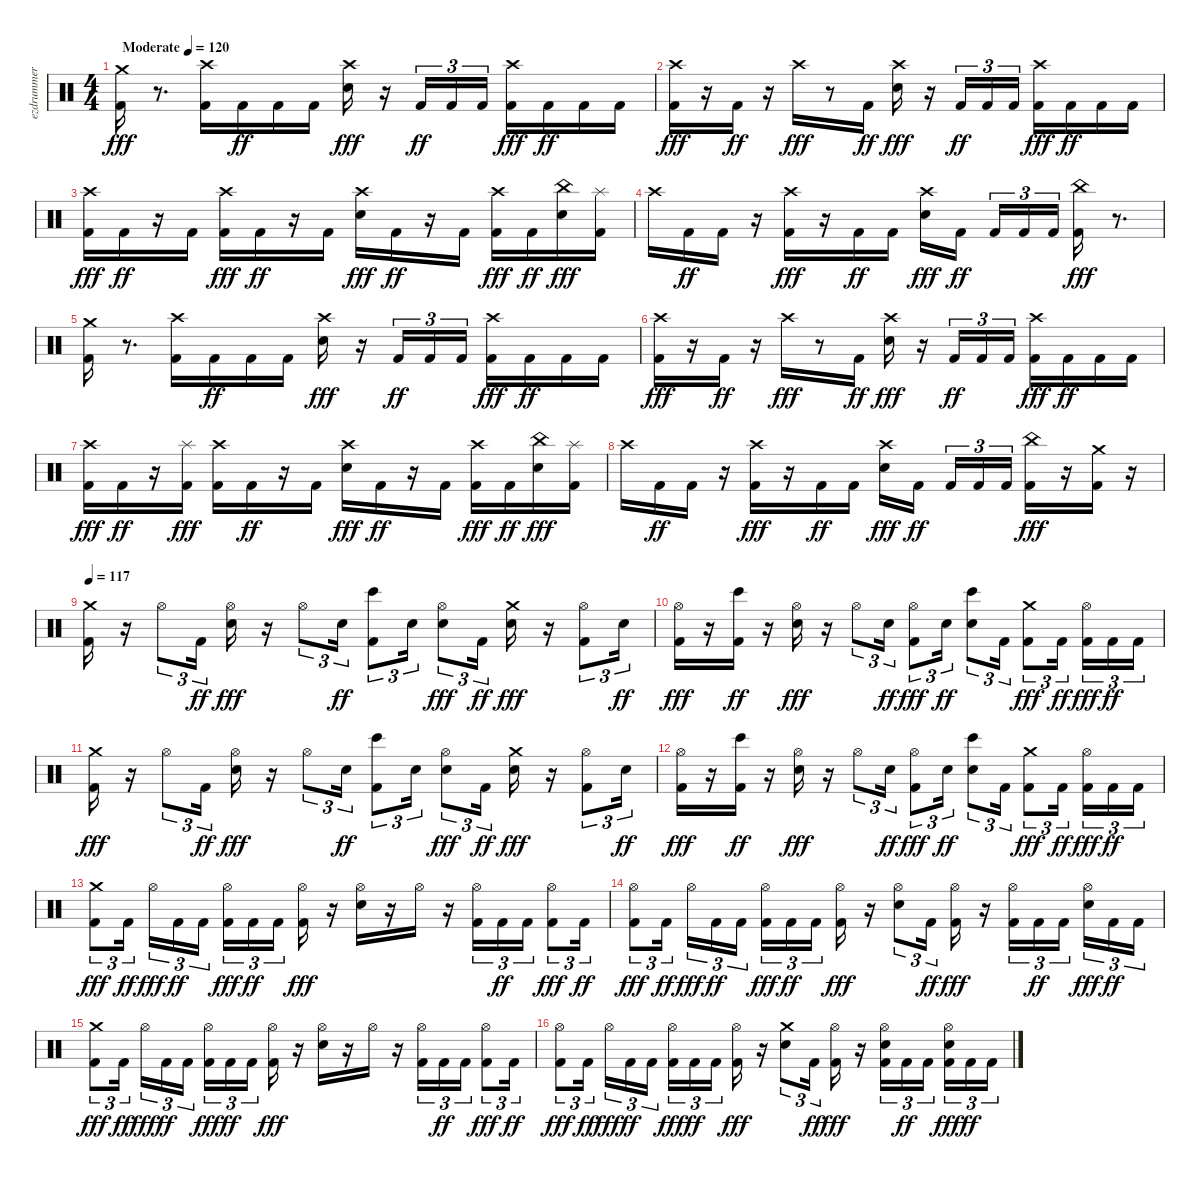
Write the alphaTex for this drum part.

\track ("ezdrummer 02" "ezdrummer ") {instrument percussion}
\staff {score}
\articulation defaults
\ts (4 4)
\tempo (120 "Moderate")
\clef neutral
\ks c
("Kick (hit) 2" "Crash medium (hit)").16{dy fff} r.8{d} ("Kick (hit) 2" "Crash high (hit)").16 "Kick (hit) 2".16{dy ff} "Kick (hit) 2".16 "Kick (hit) 2".16 ("Snare (hit) 2" "Crash high (hit)").16{dy fff} r.16 "Kick (hit) 2".16{tu (3 2) dy ff} "Kick (hit) 2".16{tu (3 2)} "Kick (hit) 2".16{tu (3 2)} ("Kick (hit) 2" "Crash high (hit)").16{dy fff} "Kick (hit) 2".16{dy ff} "Kick (hit) 2".16 "Kick (hit) 2".16 |
("Kick (hit) 2" "Crash high (hit)").16{dy fff} r.16 "Kick (hit) 2".16{dy ff} r.16 "Crash high (hit)".16{dy fff} r.8 "Kick (hit) 2".16{dy ff} ("Snare (hit) 2" "Crash high (hit)").16{dy fff} r.16 "Kick (hit) 2".16{tu (3 2) dy ff} "Kick (hit) 2".16{tu (3 2)} "Kick (hit) 2".16{tu (3 2)} ("Kick (hit) 2" "Crash high (hit)").16{dy fff} "Kick (hit) 2".16{dy ff} "Kick (hit) 2".16 "Kick (hit) 2".16 |
("Kick (hit) 2" "Crash high (hit)").16{dy fff} "Kick (hit) 2".16{dy ff} r.16 "Kick (hit) 2".16 ("Kick (hit) 2" "Crash high (hit)").16{dy fff} "Kick (hit) 2".16{dy ff} r.16 "Kick (hit) 2".16 ("Snare (hit) 2" "Crash high (hit)").16{dy fff} "Kick (hit) 2".16{dy ff} r.16 "Kick (hit) 2".16 ("Kick (hit) 2" "Crash high (hit)").16{dy fff} "Kick (hit) 2".16{dy ff} ("Snare (hit) 2" "China (hit)").16{dy fff} ("Kick (hit) 2" "Splash (hit)").16 |
"Crash high (hit)".16 "Kick (hit) 2".16{dy ff} "Kick (hit) 2".16 r.16 ("Kick (hit) 2" "Crash high (hit)").16{dy fff} r.16 "Kick (hit) 2".16{dy ff} "Kick (hit) 2".16 ("Snare (hit) 2" "Crash high (hit)").16{dy fff} "Kick (hit) 2".16{dy ff beam splitsecondary} "Kick (hit) 2".16{tu (3 2)} "Kick (hit) 2".16{tu (3 2)} "Kick (hit) 2".16{tu (3 2)} ("Kick (hit) 2" "China (hit)").16{dy fff} r.8{d} |
("Kick (hit) 2" "Crash medium (hit)").16 r.8{d} ("Kick (hit) 2" "Crash high (hit)").16 "Kick (hit) 2".16{dy ff} "Kick (hit) 2".16 "Kick (hit) 2".16 ("Snare (hit) 2" "Crash high (hit)").16{dy fff} r.16 "Kick (hit) 2".16{tu (3 2) dy ff} "Kick (hit) 2".16{tu (3 2)} "Kick (hit) 2".16{tu (3 2)} ("Kick (hit) 2" "Crash high (hit)").16{dy fff} "Kick (hit) 2".16{dy ff} "Kick (hit) 2".16 "Kick (hit) 2".16 |
("Kick (hit) 2" "Crash high (hit)").16{dy fff} r.16 "Kick (hit) 2".16{dy ff} r.16 "Crash high (hit)".16{dy fff} r.8 "Kick (hit) 2".16{dy ff} ("Snare (hit) 2" "Crash high (hit)").16{dy fff} r.16 "Kick (hit) 2".16{tu (3 2) dy ff} "Kick (hit) 2".16{tu (3 2)} "Kick (hit) 2".16{tu (3 2)} ("Kick (hit) 2" "Crash high (hit)").16{dy fff} "Kick (hit) 2".16{dy ff} "Kick (hit) 2".16 "Kick (hit) 2".16 |
("Kick (hit) 2" "Crash high (hit)").16{dy fff} "Kick (hit) 2".16{dy ff} r.16 ("Kick (hit) 2" "Splash (hit)").16{dy fff} ("Kick (hit) 2" "Crash high (hit)").16 "Kick (hit) 2".16{dy ff} r.16 "Kick (hit) 2".16 ("Snare (hit) 2" "Crash high (hit)").16{dy fff} "Kick (hit) 2".16{dy ff} r.16 "Kick (hit) 2".16 ("Kick (hit) 2" "Crash high (hit)").16{dy fff} "Kick (hit) 2".16{dy ff} ("Snare (hit) 2" "China (hit)").16{dy fff} ("Kick (hit) 2" "Splash (hit)").16 |
"Crash high (hit)".16 "Kick (hit) 2".16{dy ff} "Kick (hit) 2".16 r.16 ("Kick (hit) 2" "Crash high (hit)").16{dy fff} r.16 "Kick (hit) 2".16{dy ff} "Kick (hit) 2".16 ("Snare (hit) 2" "Crash high (hit)").16{dy fff} "Kick (hit) 2".16{dy ff beam splitsecondary} "Kick (hit) 2".16{tu (3 2)} "Kick (hit) 2".16{tu (3 2)} "Kick (hit) 2".16{tu (3 2)} ("Kick (hit) 2" "China (hit)").16{dy fff} r.16 ("Kick (hit) 2" "Crash medium (hit)").16 r.16 |
\tempo 117
("Kick (hit) 2" "Crash medium (hit)").16 r.16 "Hi-Hat (open)".8{tu (3 2)} "Kick (hit) 2".16{tu (3 2) dy ff} ("Snare (hit) 2" "Hi-Hat (open)").16{dy fff} r.16 "Hi-Hat (open)".8{tu (3 2)} "Snare (hit) 2".16{tu (3 2) dy ff} ("Kick (hit) 2" "Bongo High (hit)").8{tu (3 2)} "Snare (hit) 2".16{tu (3 2)} ("Snare (hit) 2" "Hi-Hat (open)").8{tu (3 2) dy fff} "Kick (hit) 2".16{tu (3 2) dy ff} ("Snare (hit) 2" "Crash medium (hit)").16{dy fff} r.16 ("Kick (hit) 2" "Hi-Hat (open)").8{tu (3 2)} "Snare (hit) 2".16{tu (3 2) dy ff} |
("Kick (hit) 2" "Hi-Hat (open)").16{dy fff} r.16 ("Kick (hit) 2" "Bongo High (hit)").16{dy ff} r.16 ("Snare (hit) 2" "Hi-Hat (open)").16{dy fff} r.16 "Hi-Hat (open)".8{tu (3 2)} "Snare (hit) 2".16{tu (3 2) dy ff} ("Kick (hit) 2" "Hi-Hat (open)").8{tu (3 2) dy fff} "Snare (hit) 2".16{tu (3 2) dy ff} ("Snare (hit) 2" "Bongo High (hit)").8{tu (3 2)} "Kick (hit) 2".16{tu (3 2)} ("Kick (hit) 2" "Crash medium (hit)").8{tu (3 2) dy fff} "Kick (hit) 2".16{tu (3 2) dy ff beam splitsecondary} ("Kick (hit) 2" "Hi-Hat (open)").16{tu (3 2) dy fff} "Kick (hit) 2".16{tu (3 2) dy ff} "Kick (hit) 2".16{tu (3 2)} |
("Kick (hit) 2" "Crash medium (hit)").16{dy fff} r.16 "Hi-Hat (open)".8{tu (3 2)} "Kick (hit) 2".16{tu (3 2) dy ff} ("Snare (hit) 2" "Hi-Hat (open)").16{dy fff} r.16 "Hi-Hat (open)".8{tu (3 2)} "Snare (hit) 2".16{tu (3 2) dy ff} ("Kick (hit) 2" "Bongo High (hit)").8{tu (3 2)} "Snare (hit) 2".16{tu (3 2)} ("Snare (hit) 2" "Hi-Hat (open)").8{tu (3 2) dy fff} "Kick (hit) 2".16{tu (3 2) dy ff} ("Snare (hit) 2" "Crash medium (hit)").16{dy fff} r.16 ("Kick (hit) 2" "Hi-Hat (open)").8{tu (3 2)} "Snare (hit) 2".16{tu (3 2) dy ff} |
("Kick (hit) 2" "Hi-Hat (open)").16{dy fff} r.16 ("Kick (hit) 2" "Bongo High (hit)").16{dy ff} r.16 ("Snare (hit) 2" "Hi-Hat (open)").16{dy fff} r.16 "Hi-Hat (open)".8{tu (3 2)} "Snare (hit) 2".16{tu (3 2) dy ff} ("Kick (hit) 2" "Hi-Hat (open)").8{tu (3 2) dy fff} "Snare (hit) 2".16{tu (3 2) dy ff} ("Snare (hit) 2" "Bongo High (hit)").8{tu (3 2)} "Kick (hit) 2".16{tu (3 2)} ("Kick (hit) 2" "Crash medium (hit)").8{tu (3 2) dy fff} "Kick (hit) 2".16{tu (3 2) dy ff beam splitsecondary} ("Kick (hit) 2" "Hi-Hat (open)").16{tu (3 2) dy fff} "Kick (hit) 2".16{tu (3 2) dy ff} "Kick (hit) 2".16{tu (3 2)} |
("Kick (hit) 2" "Crash medium (hit)").8{tu (3 2) dy fff} "Kick (hit) 2".16{tu (3 2) dy ff beam splitsecondary} "Hi-Hat (open)".16{tu (3 2) dy fff} "Kick (hit) 2".16{tu (3 2) dy ff} "Kick (hit) 2".16{tu (3 2)} ("Kick (hit) 2" "Hi-Hat (open)").16{tu (3 2) dy fff} "Kick (hit) 2".16{tu (3 2) dy ff} "Kick (hit) 2".16{tu (3 2) beam splitsecondary} ("Kick (hit) 2" "Hi-Hat (open)").16{dy fff} r.16 ("Snare (hit) 2" "Hi-Hat (open)").16 r.16 "Hi-Hat (open)".16 r.16 ("Kick (hit) 2" "Hi-Hat (open)").16{tu (3 2)} "Kick (hit) 2".16{tu (3 2) dy ff} "Kick (hit) 2".16{tu (3 2)} ("Kick (hit) 2" "Hi-Hat (open)").8{tu (3 2) dy fff} "Kick (hit) 2".16{tu (3 2) dy ff} |
("Kick (hit) 2" "Hi-Hat (open)").8{tu (3 2) dy fff} "Kick (hit) 2".16{tu (3 2) dy ff beam splitsecondary} "Hi-Hat (open)".16{tu (3 2) dy fff} "Kick (hit) 2".16{tu (3 2) dy ff} "Kick (hit) 2".16{tu (3 2)} ("Kick (hit) 2" "Hi-Hat (open)").16{tu (3 2) dy fff} "Kick (hit) 2".16{tu (3 2) dy ff} "Kick (hit) 2".16{tu (3 2) beam splitsecondary} ("Kick (hit) 2" "Hi-Hat (open)").16{dy fff} r.16 ("Snare (hit) 2" "Hi-Hat (open)").8{tu (3 2)} "Kick (hit) 2".16{tu (3 2) dy ff} ("Kick (hit) 2" "Hi-Hat (open)").16{dy fff} r.16 ("Kick (hit) 2" "Hi-Hat (open)").16{tu (3 2)} "Kick (hit) 2".16{tu (3 2) dy ff} "Kick (hit) 2".16{tu (3 2) beam splitsecondary} ("Snare (hit) 2" "Hi-Hat (open)").16{tu (3 2) dy fff} "Kick (hit) 2".16{tu (3 2) dy ff} "Kick (hit) 2".16{tu (3 2)} |
("Kick (hit) 2" "Crash medium (hit)").8{tu (3 2) dy fff} "Kick (hit) 2".16{tu (3 2) dy ff beam splitsecondary} "Hi-Hat (open)".16{tu (3 2) dy fff} "Kick (hit) 2".16{tu (3 2) dy ff} "Kick (hit) 2".16{tu (3 2)} ("Kick (hit) 2" "Hi-Hat (open)").16{tu (3 2) dy fff} "Kick (hit) 2".16{tu (3 2) dy ff} "Kick (hit) 2".16{tu (3 2) beam splitsecondary} ("Kick (hit) 2" "Hi-Hat (open)").16{dy fff} r.16 ("Snare (hit) 2" "Hi-Hat (open)").16 r.16 "Hi-Hat (open)".16 r.16 ("Kick (hit) 2" "Hi-Hat (open)").16{tu (3 2)} "Kick (hit) 2".16{tu (3 2) dy ff} "Kick (hit) 2".16{tu (3 2)} ("Kick (hit) 2" "Hi-Hat (open)").8{tu (3 2) dy fff} "Kick (hit) 2".16{tu (3 2) dy ff} |
("Kick (hit) 2" "Hi-Hat (open)").8{tu (3 2) dy fff} "Kick (hit) 2".16{tu (3 2) dy ff beam splitsecondary} "Hi-Hat (open)".16{tu (3 2) dy fff} "Kick (hit) 2".16{tu (3 2) dy ff} "Kick (hit) 2".16{tu (3 2)} ("Kick (hit) 2" "Hi-Hat (open)").16{tu (3 2) dy fff} "Kick (hit) 2".16{tu (3 2) dy ff} "Kick (hit) 2".16{tu (3 2) beam splitsecondary} ("Kick (hit) 2" "Hi-Hat (open)").16{dy fff} r.16 ("Snare (hit) 2" "Crash medium (hit)").8{tu (3 2)} "Kick (hit) 2".16{tu (3 2) dy ff} ("Kick (hit) 2" "Hi-Hat (open)").16{dy fff} r.16 ("Kick (hit) 2" "Snare (hit) 2" "Hi-Hat (open)").16{tu (3 2)} "Kick (hit) 2".16{tu (3 2) dy ff} "Kick (hit) 2".16{tu (3 2) beam splitsecondary} ("Kick (hit) 2" "Snare (hit) 2" "Hi-Hat (open)").16{tu (3 2) dy fff} "Kick (hit) 2".16{tu (3 2) dy ff} "Kick (hit) 2".16{tu (3 2)}
